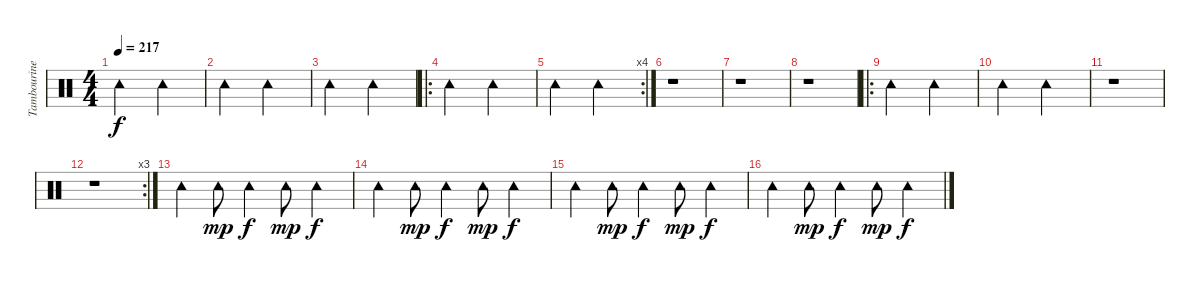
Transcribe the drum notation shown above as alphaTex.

\track ("Tambourine" "Tambourine") {instrument percussion}
\staff {score}
\articulation defaults
\ts (4 4)
\tempo 217
\clef neutral
\ks c "Tambourine (hit)".2{dy f} "Tambourine (hit)".2
|
"Tambourine (hit)".2 "Tambourine (hit)".2 |
"Tambourine (hit)".2 "Tambourine (hit)".2 |
\ro "Tambourine (hit)".2 "Tambourine (hit)".2
|
\rc 4 "Tambourine (hit)".2 "Tambourine (hit)".2
|
r.1 |
r.1 |
r.1 |
\ro "Tambourine (hit)".2 "Tambourine (hit)".2
|
"Tambourine (hit)".2 "Tambourine (hit)".2 |
r.1 |
\rc 3
r.1 |
"Tambourine (hit)".4 "Tambourine (hit)".8{dy mp} "Tambourine (hit)".4{dy f} "Tambourine (hit)".8{dy mp} "Tambourine (hit)".4{dy f} |
"Tambourine (hit)".4 "Tambourine (hit)".8{dy mp} "Tambourine (hit)".4{dy f} "Tambourine (hit)".8{dy mp} "Tambourine (hit)".4{dy f} |
"Tambourine (hit)".4 "Tambourine (hit)".8{dy mp} "Tambourine (hit)".4{dy f} "Tambourine (hit)".8{dy mp} "Tambourine (hit)".4{dy f} |
"Tambourine (hit)".4 "Tambourine (hit)".8{dy mp} "Tambourine (hit)".4{dy f} "Tambourine (hit)".8{dy mp} "Tambourine (hit)".4{dy f}
